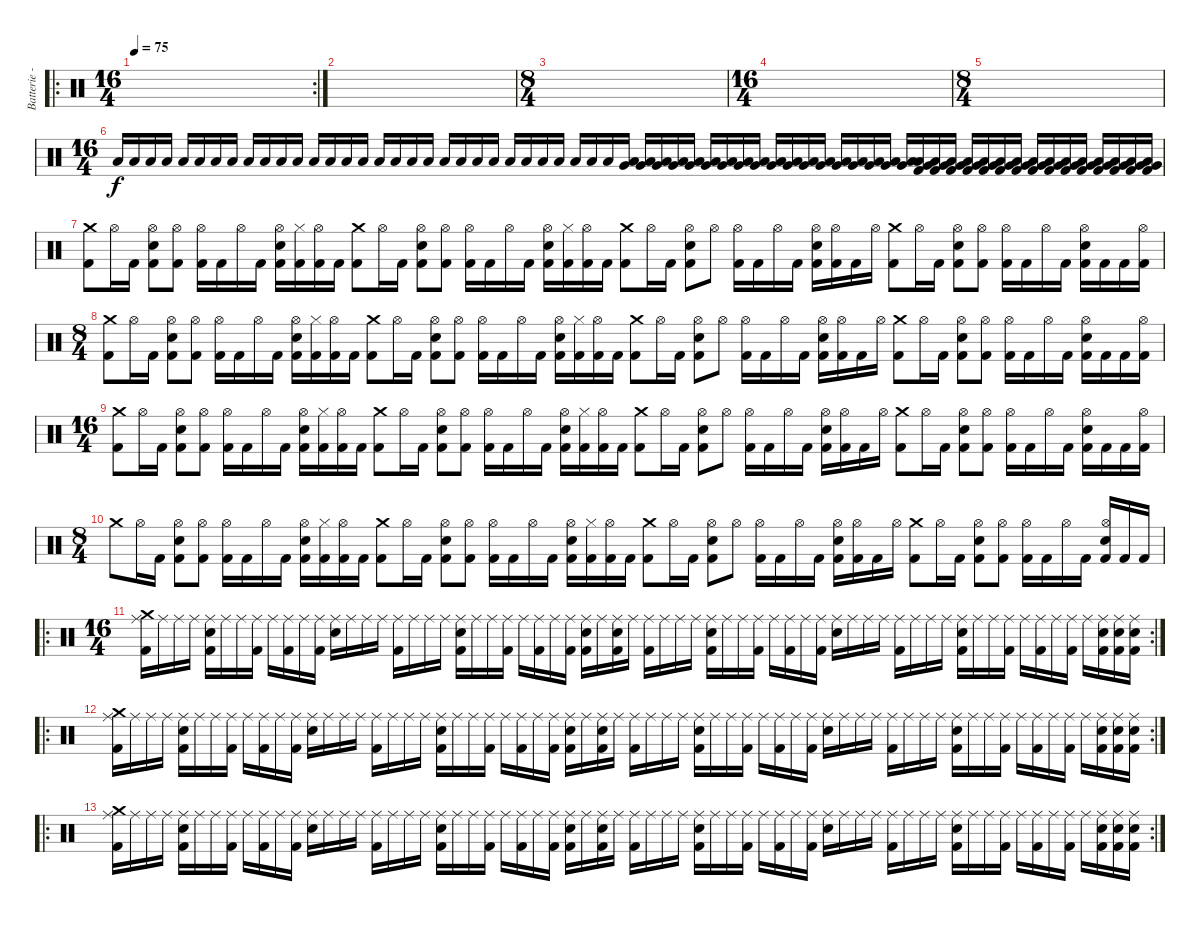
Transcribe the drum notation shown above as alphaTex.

\track ("Batterie - " "Batterie -") {instrument percussion}
\staff {score}
\articulation defaults
\ro
\rc 2
\ts (16 4)
\tempo 75
\clef neutral
\ks c
|
|
\ts (8 4)
|
\ts (16 4)
|
\ts (8 4)
|
\ts (16 4)
"Low Floor Tom (hit)".16 "Low Floor Tom (hit)".16 "Low Floor Tom (hit)".16 "Low Floor Tom (hit)".16 "Low Floor Tom (hit)".16 "Low Floor Tom (hit)".16 "Low Floor Tom (hit)".16 "Low Floor Tom (hit)".16 "Low Floor Tom (hit)".16 "Low Floor Tom (hit)".16 "Low Floor Tom (hit)".16 "Low Floor Tom (hit)".16 "Low Floor Tom (hit)".16 "Low Floor Tom (hit)".16 "Low Floor Tom (hit)".16 "Low Floor Tom (hit)".16 "Low Floor Tom (hit)".16 "Low Floor Tom (hit)".16 "Low Floor Tom (hit)".16 "Low Floor Tom (hit)".16 "Low Floor Tom (hit)".16 "Low Floor Tom (hit)".16 "Low Floor Tom (hit)".16 "Low Floor Tom (hit)".16 "Low Floor Tom (hit)".16 "Low Floor Tom (hit)".16 "Low Floor Tom (hit)".16 "Low Floor Tom (hit)".16 "Low Floor Tom (hit)".16 "Low Floor Tom (hit)".16 "Low Floor Tom (hit)".16 ("Very Low Tom (hit)" "Low Floor Tom (hit)").16 ("Very Low Tom (hit)" "Low Floor Tom (hit)").16 ("Very Low Tom (hit)" "Low Floor Tom (hit)").16 ("Very Low Tom (hit)" "Low Floor Tom (hit)").16 ("Very Low Tom (hit)" "Low Floor Tom (hit)").16 ("Very Low Tom (hit)" "Low Floor Tom (hit)").16 ("Very Low Tom (hit)" "Low Floor Tom (hit)").16 ("Very Low Tom (hit)" "Low Floor Tom (hit)").16 ("Very Low Tom (hit)" "Low Floor Tom (hit)").16 ("Very Low Tom (hit)" "Low Floor Tom (hit)").16 ("Very Low Tom (hit)" "Low Floor Tom (hit)").16 ("Very Low Tom (hit)" "Low Floor Tom (hit)").16 ("Very Low Tom (hit)" "Low Floor Tom (hit)").16{volume 16} ("Very Low Tom (hit)" "Low Floor Tom (hit)").16 ("Very Low Tom (hit)" "Low Floor Tom (hit)").16 ("Very Low Tom (hit)" "Low Floor Tom (hit)").16 ("Very Low Tom (hit)" "Low Floor Tom (hit)").16 ("Very Low Tom (hit)" "Low Floor Tom (hit)").16 ("Kick (hit) 2" "Very Low Tom (hit)" "Low Floor Tom (hit)").16 ("Kick (hit) 2" "Very Low Tom (hit)" "Low Floor Tom (hit)").16 ("Kick (hit) 2" "Very Low Tom (hit)" "Low Floor Tom (hit)").16 ("Kick (hit) 2" "Very Low Tom (hit)" "Low Floor Tom (hit)").16 ("Kick (hit) 2" "Very Low Tom (hit)" "Low Floor Tom (hit)").16 ("Kick (hit) 2" "Very Low Tom (hit)" "Low Floor Tom (hit)").16 ("Kick (hit) 2" "Very Low Tom (hit)" "Low Floor Tom (hit)").16 ("Kick (hit) 2" "Very Low Tom (hit)" "Low Floor Tom (hit)").16 ("Kick (hit) 2" "Very Low Tom (hit)" "Low Floor Tom (hit)").16 ("Kick (hit) 2" "Very Low Tom (hit)" "Low Floor Tom (hit)").16 ("Kick (hit) 2" "Very Low Tom (hit)" "Low Floor Tom (hit)").16 ("Kick (hit) 2" "Very Low Tom (hit)" "Low Floor Tom (hit)").16 ("Kick (hit) 2" "Very Low Tom (hit)" "Low Floor Tom (hit)").16 ("Kick (hit) 2" "Very Low Tom (hit)" "Low Floor Tom (hit)").16 ("Kick (hit) 2" "Very Low Tom (hit)" "Low Floor Tom (hit)").16 |
("Crash medium (hit)" "Kick (hit) 2").8 "Hi-Hat (open)".16 "Kick (hit) 2".16 ("Snare (hit) 2" "Kick (hit) 2" "Hi-Hat (open)").8 ("Kick (hit) 2" "Hi-Hat (open)").8 ("Kick (hit) 2" "Hi-Hat (open)").16 "Kick (hit) 2".16 "Hi-Hat (open)".16 "Kick (hit) 2".16 ("Hi-Hat (open)" "Kick (hit) 2" "Snare (hit) 2").16 ("Hi-Hat (closed)" "Kick (hit) 2").16 ("Hi-Hat (open)" "Kick (hit) 2").16 "Kick (hit) 2".16 ("Kick (hit) 2" "Crash medium (hit)").8 "Hi-Hat (open)".16 "Kick (hit) 2".16 ("Hi-Hat (open)" "Snare (hit) 2" "Kick (hit) 2").8 ("Kick (hit) 2" "Hi-Hat (open)").8 ("Kick (hit) 2" "Hi-Hat (open)").16 "Kick (hit) 2".16 "Hi-Hat (open)".16 "Kick (hit) 2".16 ("Hi-Hat (open)" "Kick (hit) 2" "Snare (hit) 2").16 ("Kick (hit) 2" "Hi-Hat (closed)").16 ("Hi-Hat (open)" "Kick (hit) 2").16 "Kick (hit) 2".16 ("Crash medium (hit)" "Kick (hit) 2").8 "Hi-Hat (open)".16 "Kick (hit) 2".16 ("Hi-Hat (open)" "Snare (hit) 2" "Kick (hit) 2").8 "Hi-Hat (open)".8 ("Kick (hit) 2" "Hi-Hat (open)").16 "Kick (hit) 2".16 "Hi-Hat (open)".16 "Kick (hit) 2".16 ("Hi-Hat (open)" "Kick (hit) 2" "Snare (hit) 2").16 ("Hi-Hat (open)" "Kick (hit) 2").16 "Kick (hit) 2".16 "Hi-Hat (open)".16 ("Kick (hit) 2" "Crash medium (hit)").8 "Hi-Hat (open)".16 "Kick (hit) 2".16 ("Hi-Hat (open)" "Snare (hit) 2" "Kick (hit) 2").8 ("Kick (hit) 2" "Hi-Hat (open)").8 ("Hi-Hat (open)" "Kick (hit) 2").16 "Kick (hit) 2".16 "Hi-Hat (open)".16 "Kick (hit) 2".16 ("Hi-Hat (open)" "Kick (hit) 2" "Snare (hit) 2").16 "Kick (hit) 2".16 "Kick (hit) 2".16 ("Hi-Hat (open)" "Kick (hit) 2").16 |
\ts (8 4)
("Crash medium (hit)" "Kick (hit) 2").8 "Hi-Hat (open)".16 "Kick (hit) 2".16 ("Snare (hit) 2" "Kick (hit) 2" "Hi-Hat (open)").8 ("Kick (hit) 2" "Hi-Hat (open)").8 ("Kick (hit) 2" "Hi-Hat (open)").16 "Kick (hit) 2".16 "Hi-Hat (open)".16 "Kick (hit) 2".16 ("Hi-Hat (open)" "Kick (hit) 2" "Snare (hit) 2").16 ("Hi-Hat (closed)" "Kick (hit) 2").16 ("Hi-Hat (open)" "Kick (hit) 2").16 "Kick (hit) 2".16 ("Kick (hit) 2" "Crash medium (hit)").8 "Hi-Hat (open)".16 "Kick (hit) 2".16 ("Hi-Hat (open)" "Snare (hit) 2" "Kick (hit) 2").8 ("Kick (hit) 2" "Hi-Hat (open)").8 ("Kick (hit) 2" "Hi-Hat (open)").16 "Kick (hit) 2".16 "Hi-Hat (open)".16 "Kick (hit) 2".16 ("Hi-Hat (open)" "Kick (hit) 2" "Snare (hit) 2").16 ("Kick (hit) 2" "Hi-Hat (closed)").16 ("Hi-Hat (open)" "Kick (hit) 2").16 "Kick (hit) 2".16 ("Crash medium (hit)" "Kick (hit) 2").8 "Hi-Hat (open)".16 "Kick (hit) 2".16 ("Hi-Hat (open)" "Snare (hit) 2" "Kick (hit) 2").8 "Hi-Hat (open)".8 ("Kick (hit) 2" "Hi-Hat (open)").16 "Kick (hit) 2".16 "Hi-Hat (open)".16 "Kick (hit) 2".16 ("Hi-Hat (open)" "Kick (hit) 2" "Snare (hit) 2").16 ("Hi-Hat (open)" "Kick (hit) 2").16 "Kick (hit) 2".16 "Hi-Hat (open)".16 ("Kick (hit) 2" "Crash medium (hit)").8 "Hi-Hat (open)".16 "Kick (hit) 2".16 ("Hi-Hat (open)" "Snare (hit) 2" "Kick (hit) 2").8 ("Kick (hit) 2" "Hi-Hat (open)").8 ("Hi-Hat (open)" "Kick (hit) 2").16 "Kick (hit) 2".16 "Hi-Hat (open)".16 "Kick (hit) 2".16 ("Hi-Hat (open)" "Kick (hit) 2" "Snare (hit) 2").16 "Kick (hit) 2".16 "Kick (hit) 2".16 ("Hi-Hat (open)" "Kick (hit) 2").16 |
\ts (16 4)
("Crash medium (hit)" "Kick (hit) 2").8 "Hi-Hat (open)".16 "Kick (hit) 2".16 ("Snare (hit) 2" "Kick (hit) 2" "Hi-Hat (open)").8 ("Kick (hit) 2" "Hi-Hat (open)").8 ("Kick (hit) 2" "Hi-Hat (open)").16 "Kick (hit) 2".16 "Hi-Hat (open)".16 "Kick (hit) 2".16 ("Hi-Hat (open)" "Kick (hit) 2" "Snare (hit) 2").16 ("Hi-Hat (closed)" "Kick (hit) 2").16 ("Hi-Hat (open)" "Kick (hit) 2").16 "Kick (hit) 2".16 ("Kick (hit) 2" "Crash medium (hit)").8 "Hi-Hat (open)".16 "Kick (hit) 2".16 ("Hi-Hat (open)" "Snare (hit) 2" "Kick (hit) 2").8 ("Kick (hit) 2" "Hi-Hat (open)").8 ("Kick (hit) 2" "Hi-Hat (open)").16 "Kick (hit) 2".16 "Hi-Hat (open)".16 "Kick (hit) 2".16 ("Hi-Hat (open)" "Kick (hit) 2" "Snare (hit) 2").16 ("Kick (hit) 2" "Hi-Hat (closed)").16 ("Hi-Hat (open)" "Kick (hit) 2").16 "Kick (hit) 2".16 ("Crash medium (hit)" "Kick (hit) 2").8 "Hi-Hat (open)".16 "Kick (hit) 2".16 ("Hi-Hat (open)" "Snare (hit) 2" "Kick (hit) 2").8 "Hi-Hat (open)".8 ("Kick (hit) 2" "Hi-Hat (open)").16 "Kick (hit) 2".16 "Hi-Hat (open)".16 "Kick (hit) 2".16 ("Hi-Hat (open)" "Kick (hit) 2" "Snare (hit) 2").16 ("Hi-Hat (open)" "Kick (hit) 2").16 "Kick (hit) 2".16 "Hi-Hat (open)".16 ("Kick (hit) 2" "Crash medium (hit)").8 "Hi-Hat (open)".16 "Kick (hit) 2".16 ("Hi-Hat (open)" "Snare (hit) 2" "Kick (hit) 2").8 ("Kick (hit) 2" "Hi-Hat (open)").8 ("Hi-Hat (open)" "Kick (hit) 2").16 "Kick (hit) 2".16 "Hi-Hat (open)".16 "Kick (hit) 2".16 ("Hi-Hat (open)" "Kick (hit) 2" "Snare (hit) 2").16 "Kick (hit) 2".16 "Kick (hit) 2".16 ("Hi-Hat (open)" "Kick (hit) 2").16 |
\ts (8 4)
"Crash medium (hit)".8 "Hi-Hat (open)".16 "Kick (hit) 2".16 ("Snare (hit) 2" "Kick (hit) 2" "Hi-Hat (open)").8 ("Kick (hit) 2" "Hi-Hat (open)").8 ("Kick (hit) 2" "Hi-Hat (open)").16 "Kick (hit) 2".16 "Hi-Hat (open)".16 "Kick (hit) 2".16 ("Hi-Hat (open)" "Kick (hit) 2" "Snare (hit) 2").16 ("Hi-Hat (closed)" "Kick (hit) 2").16 ("Hi-Hat (open)" "Kick (hit) 2").16 "Kick (hit) 2".16 ("Kick (hit) 2" "Crash medium (hit)").8 "Hi-Hat (open)".16 "Kick (hit) 2".16 ("Hi-Hat (open)" "Snare (hit) 2" "Kick (hit) 2").8 ("Kick (hit) 2" "Hi-Hat (open)").8 ("Kick (hit) 2" "Hi-Hat (open)").16 "Kick (hit) 2".16 "Hi-Hat (open)".16 "Kick (hit) 2".16 ("Hi-Hat (open)" "Kick (hit) 2" "Snare (hit) 2").16 ("Kick (hit) 2" "Hi-Hat (closed)").16 ("Hi-Hat (open)" "Kick (hit) 2").16 "Kick (hit) 2".16 ("Crash medium (hit)" "Kick (hit) 2").8 "Hi-Hat (open)".16 "Kick (hit) 2".16 ("Hi-Hat (open)" "Snare (hit) 2" "Kick (hit) 2").8 "Hi-Hat (open)".8 ("Kick (hit) 2" "Hi-Hat (open)").16 "Kick (hit) 2".16 "Hi-Hat (open)".16 "Kick (hit) 2".16 ("Hi-Hat (open)" "Kick (hit) 2" "Snare (hit) 2").16 ("Hi-Hat (open)" "Kick (hit) 2").16 "Kick (hit) 2".16 "Hi-Hat (open)".16 ("Kick (hit) 2" "Crash medium (hit)").8 "Hi-Hat (open)".16 "Kick (hit) 2".16 ("Hi-Hat (open)" "Snare (hit) 2" "Kick (hit) 2").8 ("Kick (hit) 2" "Hi-Hat (open)").8 ("Hi-Hat (open)" "Kick (hit) 2").16 "Kick (hit) 2".16 "Hi-Hat (open)".16 "Kick (hit) 2".16 ("Hi-Hat (open)" "Kick (hit) 2" "Snare (hit) 2").16 "Kick (hit) 2".16 "Kick (hit) 2".16 |
\ro
\rc 2
\ts (16 4)
("Crash medium (hit)" "Kick (hit) 2" "Ride (middle)").16 "Ride (middle)".16 "Ride (middle)".16 "Ride (middle)".16 ("Kick (hit) 2" "Snare (hit) 2" "Ride (middle)").16 "Ride (middle)".16 "Ride (middle)".16 ("Kick (hit) 2" "Ride (middle)").16 "Ride (middle)".16 ("Kick (hit) 2" "Ride (middle)").16 "Ride (middle)".16 ("Kick (hit) 2" "Ride (middle)").16 ("Snare (hit) 2" "Ride (middle)").16 "Ride (middle)".16 "Ride (middle)".16 "Ride (middle)".16 ("Kick (hit) 2" "Ride (middle)").16 "Ride (middle)".16 "Ride (middle)".16 "Ride (middle)".16 ("Kick (hit) 2" "Snare (hit) 2" "Ride (middle)").16 "Ride (middle)".16 "Ride (middle)".16 ("Kick (hit) 2" "Ride (middle)").16 "Ride (middle)".16 ("Kick (hit) 2" "Ride (middle)").16 "Ride (middle)".16 ("Kick (hit) 2" "Ride (middle)").16 ("Kick (hit) 2" "Snare (hit) 2" "Ride (middle)").16 "Ride (middle)".16 ("Kick (hit) 2" "Snare (hit) 2" "Ride (middle)").16 "Ride (middle)".16 ("Kick (hit) 2" "Ride (middle)").16 "Ride (middle)".16 "Ride (middle)".16 "Ride (middle)".16 ("Snare (hit) 2" "Kick (hit) 2" "Ride (middle)").16 "Ride (middle)".16 "Ride (middle)".16 ("Kick (hit) 2" "Ride (middle)").16 "Ride (middle)".16 ("Kick (hit) 2" "Ride (middle)").16 "Ride (middle)".16 ("Kick (hit) 2" "Ride (middle)").16 ("Snare (hit) 2" "Ride (middle)").16 "Ride (middle)".16 "Ride (middle)".16 "Ride (middle)".16 ("Kick (hit) 2" "Ride (middle)").16 "Ride (middle)".16 "Ride (middle)".16 "Ride (middle)".16 ("Snare (hit) 2" "Kick (hit) 2" "Ride (middle)").16 "Ride (middle)".16 "Ride (middle)".16 ("Kick (hit) 2" "Ride (middle)").16 "Ride (middle)".16 ("Kick (hit) 2" "Ride (middle)").16 "Ride (middle)".16 ("Kick (hit) 2" "Ride (middle)").16 "Ride (middle)".16 ("Kick (hit) 2" "Snare (hit) 2" "Ride (middle)").16 ("Kick (hit) 2" "Snare (hit) 2" "Ride (middle)").16 ("Kick (hit) 2" "Snare (hit) 2" "Ride (middle)").16 |
\ro
\rc 2
("Crash medium (hit)" "Kick (hit) 2" "Ride (middle)").16 "Ride (middle)".16 "Ride (middle)".16 "Ride (middle)".16 ("Kick (hit) 2" "Snare (hit) 2" "Ride (middle)").16 "Ride (middle)".16 "Ride (middle)".16 ("Kick (hit) 2" "Ride (middle)").16 "Ride (middle)".16 ("Kick (hit) 2" "Ride (middle)").16 "Ride (middle)".16 ("Kick (hit) 2" "Ride (middle)").16 ("Snare (hit) 2" "Ride (middle)").16 "Ride (middle)".16 "Ride (middle)".16 "Ride (middle)".16 ("Kick (hit) 2" "Ride (middle)").16 "Ride (middle)".16 "Ride (middle)".16 "Ride (middle)".16 ("Kick (hit) 2" "Snare (hit) 2" "Ride (middle)").16 "Ride (middle)".16 "Ride (middle)".16 ("Kick (hit) 2" "Ride (middle)").16 "Ride (middle)".16 ("Kick (hit) 2" "Ride (middle)").16 "Ride (middle)".16 ("Kick (hit) 2" "Ride (middle)").16 ("Kick (hit) 2" "Snare (hit) 2" "Ride (middle)").16 "Ride (middle)".16 ("Kick (hit) 2" "Snare (hit) 2" "Ride (middle)").16 "Ride (middle)".16 ("Kick (hit) 2" "Ride (middle)").16 "Ride (middle)".16 "Ride (middle)".16 "Ride (middle)".16 ("Snare (hit) 2" "Kick (hit) 2" "Ride (middle)").16 "Ride (middle)".16 "Ride (middle)".16 ("Kick (hit) 2" "Ride (middle)").16 "Ride (middle)".16 ("Kick (hit) 2" "Ride (middle)").16 "Ride (middle)".16 ("Kick (hit) 2" "Ride (middle)").16 ("Snare (hit) 2" "Ride (middle)").16 "Ride (middle)".16 "Ride (middle)".16 "Ride (middle)".16 ("Kick (hit) 2" "Ride (middle)").16 "Ride (middle)".16 "Ride (middle)".16 "Ride (middle)".16 ("Snare (hit) 2" "Kick (hit) 2" "Ride (middle)").16 "Ride (middle)".16 "Ride (middle)".16 ("Kick (hit) 2" "Ride (middle)").16 "Ride (middle)".16 ("Kick (hit) 2" "Ride (middle)").16 "Ride (middle)".16 ("Kick (hit) 2" "Ride (middle)").16 "Ride (middle)".16 ("Kick (hit) 2" "Snare (hit) 2" "Ride (middle)").16 ("Kick (hit) 2" "Snare (hit) 2" "Ride (middle)").16 ("Kick (hit) 2" "Snare (hit) 2" "Ride (middle)").16 |
\ro
\rc 2
("Crash medium (hit)" "Kick (hit) 2" "Ride (middle)").16 "Ride (middle)".16 "Ride (middle)".16 "Ride (middle)".16 ("Kick (hit) 2" "Snare (hit) 2" "Ride (middle)").16 "Ride (middle)".16 "Ride (middle)".16 ("Kick (hit) 2" "Ride (middle)").16 "Ride (middle)".16 ("Kick (hit) 2" "Ride (middle)").16 "Ride (middle)".16 ("Kick (hit) 2" "Ride (middle)").16 ("Snare (hit) 2" "Ride (middle)").16 "Ride (middle)".16 "Ride (middle)".16 "Ride (middle)".16 ("Kick (hit) 2" "Ride (middle)").16 "Ride (middle)".16 "Ride (middle)".16 "Ride (middle)".16 ("Kick (hit) 2" "Snare (hit) 2" "Ride (middle)").16 "Ride (middle)".16 "Ride (middle)".16 ("Kick (hit) 2" "Ride (middle)").16 "Ride (middle)".16 ("Kick (hit) 2" "Ride (middle)").16 "Ride (middle)".16 ("Kick (hit) 2" "Ride (middle)").16 ("Kick (hit) 2" "Snare (hit) 2" "Ride (middle)").16 "Ride (middle)".16 ("Kick (hit) 2" "Snare (hit) 2" "Ride (middle)").16 "Ride (middle)".16 ("Kick (hit) 2" "Ride (middle)").16 "Ride (middle)".16 "Ride (middle)".16 "Ride (middle)".16 ("Snare (hit) 2" "Kick (hit) 2" "Ride (middle)").16 "Ride (middle)".16 "Ride (middle)".16 ("Kick (hit) 2" "Ride (middle)").16 "Ride (middle)".16 ("Kick (hit) 2" "Ride (middle)").16 "Ride (middle)".16 ("Kick (hit) 2" "Ride (middle)").16 ("Snare (hit) 2" "Ride (middle)").16 "Ride (middle)".16 "Ride (middle)".16 "Ride (middle)".16 ("Kick (hit) 2" "Ride (middle)").16 "Ride (middle)".16 "Ride (middle)".16 "Ride (middle)".16 ("Snare (hit) 2" "Kick (hit) 2" "Ride (middle)").16 "Ride (middle)".16 "Ride (middle)".16 ("Kick (hit) 2" "Ride (middle)").16 "Ride (middle)".16 ("Kick (hit) 2" "Ride (middle)").16 "Ride (middle)".16 ("Kick (hit) 2" "Ride (middle)").16 "Ride (middle)".16 ("Kick (hit) 2" "Snare (hit) 2" "Ride (middle)").16 ("Kick (hit) 2" "Snare (hit) 2" "Ride (middle)").16 ("Kick (hit) 2" "Snare (hit) 2" "Ride (middle)").16
